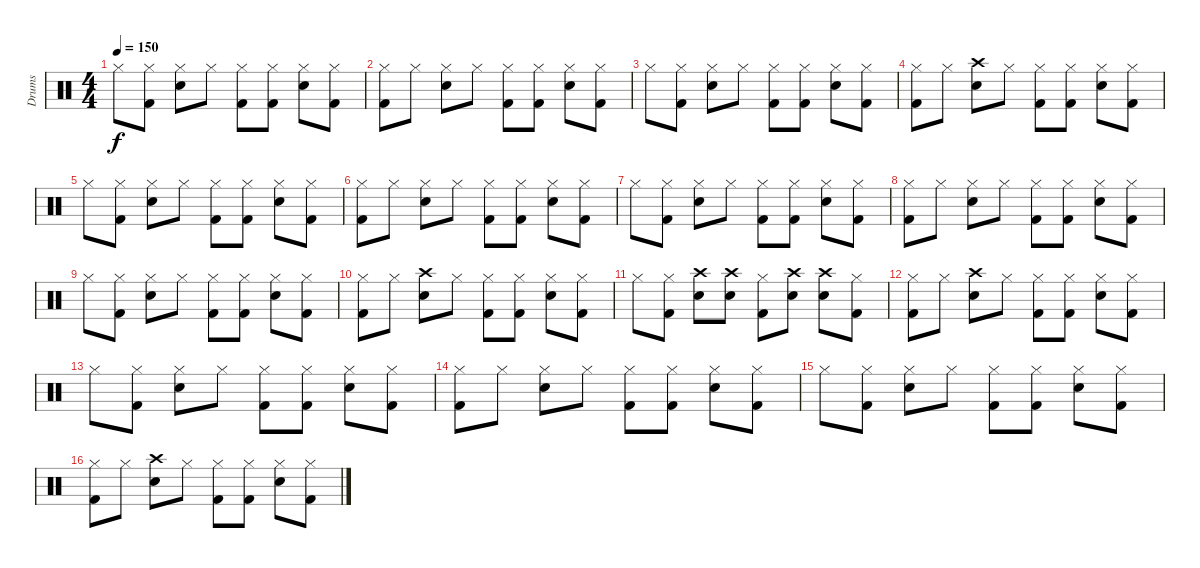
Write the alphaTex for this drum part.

\track ("Drums" "Drums") {instrument percussion}
\staff {score}
\articulation defaults
\ts (4 4)
\tempo 150
\clef neutral
\ks c "Hi-Hat (closed)".8{dy f}
("Kick (hit) 2" "Hi-Hat (closed)").8 ("Snare (hit) 2" "Hi-Hat (closed)").8 "Hi-Hat (closed)".8 ("Kick (hit) 2" "Hi-Hat (closed)").8 ("Kick (hit) 2" "Hi-Hat (closed)").8 ("Snare (hit) 2" "Hi-Hat (closed)").8 ("Kick (hit) 2" "Hi-Hat (closed)").8 |
("Kick (hit) 2" "Hi-Hat (closed)").8 "Hi-Hat (closed)".8 ("Snare (hit) 2" "Hi-Hat (closed)").8 "Hi-Hat (closed)".8 ("Kick (hit) 2" "Hi-Hat (closed)").8 ("Kick (hit) 2" "Hi-Hat (closed)").8 ("Snare (hit) 2" "Hi-Hat (closed)").8 ("Kick (hit) 2" "Hi-Hat (closed)").8 |
"Hi-Hat (closed)".8 ("Kick (hit) 2" "Hi-Hat (closed)").8 ("Snare (hit) 2" "Hi-Hat (closed)").8 "Hi-Hat (closed)".8 ("Kick (hit) 2" "Hi-Hat (closed)").8 ("Kick (hit) 2" "Hi-Hat (closed)").8 ("Snare (hit) 2" "Hi-Hat (closed)").8 ("Kick (hit) 2" "Hi-Hat (closed)").8 |
("Kick (hit) 2" "Hi-Hat (closed)").8 "Hi-Hat (closed)".8 ("Crash high (hit)" "Snare (hit) 2").8 "Hi-Hat (closed)".8 ("Kick (hit) 2" "Hi-Hat (closed)").8 ("Kick (hit) 2" "Hi-Hat (closed)").8 ("Snare (hit) 2" "Hi-Hat (closed)").8 ("Kick (hit) 2" "Hi-Hat (closed)").8 |
"Hi-Hat (closed)".8 ("Kick (hit) 2" "Hi-Hat (closed)").8 ("Snare (hit) 2" "Hi-Hat (closed)").8 "Hi-Hat (closed)".8 ("Kick (hit) 2" "Hi-Hat (closed)").8 ("Kick (hit) 2" "Hi-Hat (closed)").8 ("Snare (hit) 2" "Hi-Hat (closed)").8 ("Kick (hit) 2" "Hi-Hat (closed)").8 |
("Kick (hit) 2" "Hi-Hat (closed)").8 "Hi-Hat (closed)".8 ("Snare (hit) 2" "Hi-Hat (closed)").8 "Hi-Hat (closed)".8 ("Kick (hit) 2" "Hi-Hat (closed)").8 ("Kick (hit) 2" "Hi-Hat (closed)").8 ("Snare (hit) 2" "Hi-Hat (closed)").8 ("Kick (hit) 2" "Hi-Hat (closed)").8 |
"Hi-Hat (closed)".8 ("Kick (hit) 2" "Hi-Hat (closed)").8 ("Snare (hit) 2" "Hi-Hat (closed)").8 "Hi-Hat (closed)".8 ("Kick (hit) 2" "Hi-Hat (closed)").8 ("Kick (hit) 2" "Hi-Hat (closed)").8 ("Snare (hit) 2" "Hi-Hat (closed)").8 ("Kick (hit) 2" "Hi-Hat (closed)").8 |
("Kick (hit) 2" "Hi-Hat (closed)").8 "Hi-Hat (closed)".8 ("Snare (hit) 2" "Hi-Hat (closed)").8 "Hi-Hat (closed)".8 ("Kick (hit) 2" "Hi-Hat (closed)").8 ("Kick (hit) 2" "Hi-Hat (closed)").8 ("Snare (hit) 2" "Hi-Hat (closed)").8 ("Kick (hit) 2" "Hi-Hat (closed)").8 |
"Hi-Hat (closed)".8 ("Kick (hit) 2" "Hi-Hat (closed)").8 ("Snare (hit) 2" "Hi-Hat (closed)").8 "Hi-Hat (closed)".8 ("Kick (hit) 2" "Hi-Hat (closed)").8 ("Kick (hit) 2" "Hi-Hat (closed)").8 ("Snare (hit) 2" "Hi-Hat (closed)").8 ("Kick (hit) 2" "Hi-Hat (closed)").8 |
("Kick (hit) 2" "Hi-Hat (closed)").8 "Hi-Hat (closed)".8 ("Snare (hit) 2" "Crash high (hit)").8 "Hi-Hat (closed)".8 ("Kick (hit) 2" "Hi-Hat (closed)").8 ("Kick (hit) 2" "Hi-Hat (closed)").8 ("Snare (hit) 2" "Hi-Hat (closed)").8 ("Kick (hit) 2" "Hi-Hat (closed)").8 |
"Hi-Hat (closed)".8 ("Kick (hit) 2" "Hi-Hat (closed)").8 ("Crash high (hit)" "Snare (hit) 2").8 ("Snare (hit) 2" "Crash high (hit)").8 ("Kick (hit) 2" "Hi-Hat (closed)").8 ("Crash high (hit)" "Snare (hit) 2").8 ("Crash high (hit)" "Snare (hit) 2").8 ("Kick (hit) 2" "Hi-Hat (closed)").8 |
("Kick (hit) 2" "Hi-Hat (closed)").8 "Hi-Hat (closed)".8 ("Crash high (hit)" "Snare (hit) 2").8 "Hi-Hat (closed)".8 ("Kick (hit) 2" "Hi-Hat (closed)").8 ("Kick (hit) 2" "Hi-Hat (closed)").8 ("Snare (hit) 2" "Hi-Hat (closed)").8 ("Kick (hit) 2" "Hi-Hat (closed)").8 |
"Hi-Hat (closed)".8 ("Kick (hit) 2" "Hi-Hat (closed)").8 ("Snare (hit) 2" "Hi-Hat (closed)").8 "Hi-Hat (closed)".8 ("Kick (hit) 2" "Hi-Hat (closed)").8 ("Kick (hit) 2" "Hi-Hat (closed)").8 ("Snare (hit) 2" "Hi-Hat (closed)").8 ("Kick (hit) 2" "Hi-Hat (closed)").8 |
("Kick (hit) 2" "Hi-Hat (closed)").8 "Hi-Hat (closed)".8 ("Snare (hit) 2" "Hi-Hat (closed)").8 "Hi-Hat (closed)".8 ("Kick (hit) 2" "Hi-Hat (closed)").8 ("Kick (hit) 2" "Hi-Hat (closed)").8 ("Snare (hit) 2" "Hi-Hat (closed)").8 ("Kick (hit) 2" "Hi-Hat (closed)").8 |
"Hi-Hat (closed)".8 ("Kick (hit) 2" "Hi-Hat (closed)").8 ("Snare (hit) 2" "Hi-Hat (closed)").8 "Hi-Hat (closed)".8 ("Kick (hit) 2" "Hi-Hat (closed)").8 ("Kick (hit) 2" "Hi-Hat (closed)").8 ("Snare (hit) 2" "Hi-Hat (closed)").8 ("Kick (hit) 2" "Hi-Hat (closed)").8 |
("Kick (hit) 2" "Hi-Hat (closed)").8 "Hi-Hat (closed)".8 ("Crash high (hit)" "Snare (hit) 2").8 "Hi-Hat (closed)".8 ("Kick (hit) 2" "Hi-Hat (closed)").8 ("Kick (hit) 2" "Hi-Hat (closed)").8 ("Snare (hit) 2" "Hi-Hat (closed)").8 ("Kick (hit) 2" "Hi-Hat (closed)").8
